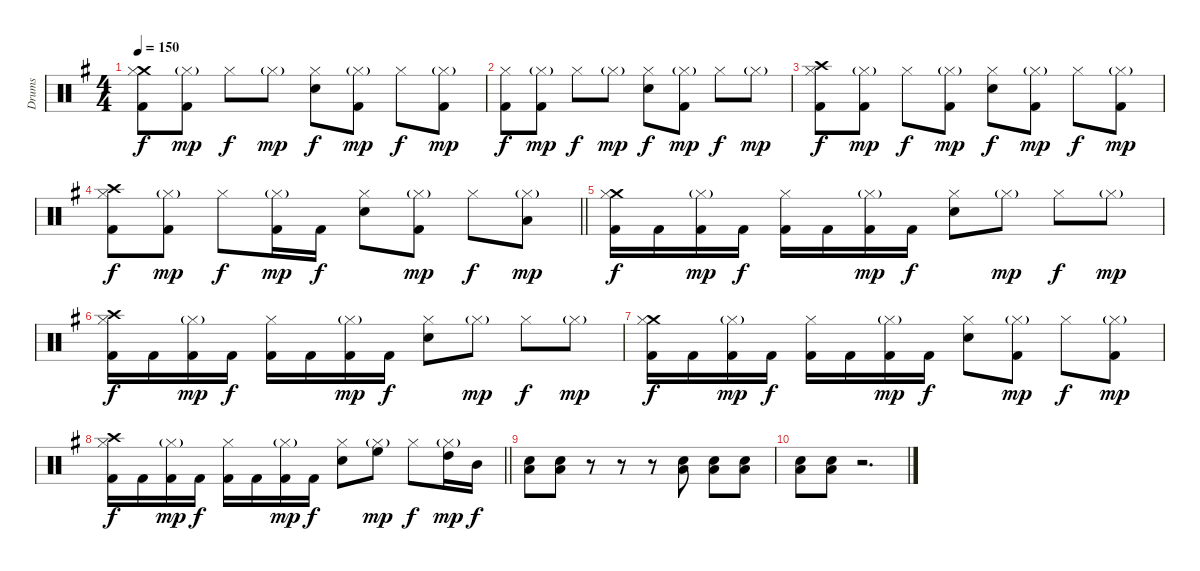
\track ("Drums" "Drums") {instrument percussion}
\staff {score}
\articulation defaults
\ts (4 4)
\tempo 150
\clef neutral
\ks eminor
("Crash medium (hit)" "Hi-Hat (closed)" "Kick (hit) 2").8{dy f} ("Hi-Hat (closed)"{g} "Kick (hit) 2").8{dy mp} "Hi-Hat (closed)".8{dy f} "Hi-Hat (closed)"{g}.8{dy mp} ("Hi-Hat (closed)" "Electric Snare (hit)").8{dy f} ("Hi-Hat (closed)"{g} "Kick (hit) 2").8{dy mp} "Hi-Hat (closed)".8{dy f} ("Hi-Hat (closed)"{g} "Kick (hit) 2").8{dy mp} |
("Hi-Hat (closed)" "Kick (hit) 2").8{dy f} ("Hi-Hat (closed)"{g} "Kick (hit) 2").8{dy mp} "Hi-Hat (closed)".8{dy f} "Hi-Hat (closed)"{g}.8{dy mp} ("Hi-Hat (closed)" "Electric Snare (hit)").8{dy f} ("Hi-Hat (closed)"{g} "Kick (hit) 2").8{dy mp} "Hi-Hat (closed)".8{dy f} "Hi-Hat (closed)"{g}.8{dy mp} |
("Crash high (hit)" "Hi-Hat (closed)" "Kick (hit) 2").8{dy f} ("Hi-Hat (closed)"{g} "Kick (hit) 2").8{dy mp} "Hi-Hat (closed)".8{dy f} ("Hi-Hat (closed)"{g} "Kick (hit) 2").8{dy mp} ("Hi-Hat (closed)" "Electric Snare (hit)").8{dy f} ("Hi-Hat (closed)"{g} "Kick (hit) 2").8{dy mp} "Hi-Hat (closed)".8{dy f} ("Hi-Hat (closed)"{g} "Kick (hit) 2").8{dy mp} |
\barLineRight lightlight
("Crash high (hit)" "Hi-Hat (closed)" "Kick (hit) 2").8{dy f} ("Hi-Hat (closed)"{g} "Kick (hit) 2").8{dy mp} "Hi-Hat (closed)".8{dy f} ("Hi-Hat (closed)"{g} "Kick (hit) 2").16{dy mp} "Kick (hit) 2".16{dy f} ("Hi-Hat (closed)" "Electric Snare (hit)").8 ("Hi-Hat (closed)"{g} "Kick (hit) 2").8{dy mp} "Hi-Hat (closed)".8{dy f} ("Hi-Hat (closed)"{g} "Low Tom (hit)").8{dy mp} |
\section ("" "")
("Crash medium (hit)" "Hi-Hat (closed)" "Kick (hit) 2").16{dy f} "Kick (hit) 2".16 ("Hi-Hat (closed)"{g} "Kick (hit) 2").16{dy mp} "Kick (hit) 2".16{dy f} ("Hi-Hat (closed)" "Kick (hit) 2").16 "Kick (hit) 2".16 ("Hi-Hat (closed)"{g} "Kick (hit) 2").16{dy mp} "Kick (hit) 2".16{dy f} ("Hi-Hat (closed)" "Electric Snare (hit)").8 "Hi-Hat (closed)"{g}.8{dy mp} "Hi-Hat (closed)".8{dy f} "Hi-Hat (closed)"{g}.8{dy mp} |
("Crash high (hit)" "Hi-Hat (closed)" "Kick (hit) 2").16{dy f} "Kick (hit) 2".16 ("Hi-Hat (closed)"{g} "Kick (hit) 2").16{dy mp} "Kick (hit) 2".16{dy f} ("Hi-Hat (closed)" "Kick (hit) 2").16 "Kick (hit) 2".16 ("Hi-Hat (closed)"{g} "Kick (hit) 2").16{dy mp} "Kick (hit) 2".16{dy f} ("Hi-Hat (closed)" "Electric Snare (hit)").8 "Hi-Hat (closed)"{g}.8{dy mp} "Hi-Hat (closed)".8{dy f} "Hi-Hat (closed)"{g}.8{dy mp} |
("Crash medium (hit)" "Hi-Hat (closed)" "Kick (hit) 2").16{dy f} "Kick (hit) 2".16 ("Hi-Hat (closed)"{g} "Kick (hit) 2").16{dy mp} "Kick (hit) 2".16{dy f} ("Hi-Hat (closed)" "Kick (hit) 2").16 "Kick (hit) 2".16 ("Hi-Hat (closed)"{g} "Kick (hit) 2").16{dy mp} "Kick (hit) 2".16{dy f} ("Hi-Hat (closed)" "Electric Snare (hit)").8 ("Hi-Hat (closed)"{g} "Kick (hit) 2").8{dy mp} "Hi-Hat (closed)".8{dy f} ("Hi-Hat (closed)"{g} "Kick (hit) 2").8{dy mp} |
\barLineRight lightlight
("Crash high (hit)" "Hi-Hat (closed)" "Kick (hit) 2").16{dy f} "Kick (hit) 2".16 ("Hi-Hat (closed)"{g} "Kick (hit) 2").16{dy mp} "Kick (hit) 2".16{dy f} ("Hi-Hat (closed)" "Kick (hit) 2").16 "Kick (hit) 2".16 ("Hi-Hat (closed)"{g} "Kick (hit) 2").16{dy mp} "Kick (hit) 2".16{dy f} ("Hi-Hat (closed)" "Electric Snare (hit)").8 ("Hi-Hat (closed)"{g} "High Floor Tom (hit)").8{dy mp} "Hi-Hat (closed)".8{dy f} ("Hi-Hat (closed)"{g} "High Tom (hit)").16{dy mp} "Mid Tom (hit)".16{dy f} |
\section ("" "")
("Electric Snare (hit)" "Low Tom (hit)").8 ("Electric Snare (hit)" "Low Tom (hit)").8 r.8 r.8 r.8 ("Electric Snare (hit)" "Low Tom (hit)").8 ("Electric Snare (hit)" "Low Tom (hit)").8 ("Electric Snare (hit)" "Low Tom (hit)").8 |
("Electric Snare (hit)" "Low Floor Tom (hit)").8 ("Electric Snare (hit)" "Low Floor Tom (hit)").8 r.2{d}
